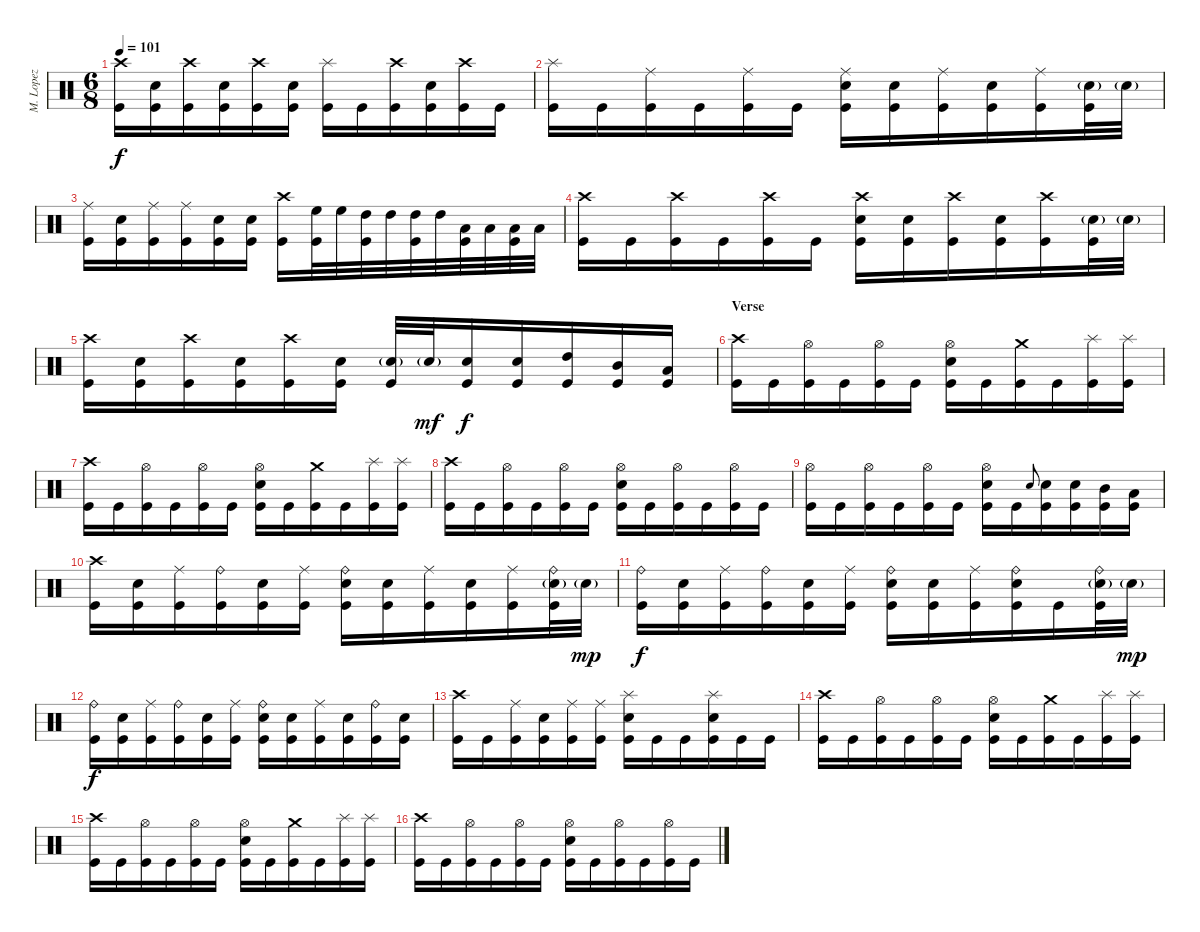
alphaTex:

\track ("M. Lopez" "M. Lopez") {instrument percussion}
\staff {score}
\articulation defaults
\ts (6 8)
\tempo 101
\clef neutral
\ks c
("Crash high (hit)" "Kick (hit)").16{dy f} ("Electric Snare (hit)" "Kick (hit)").16 ("Crash high (hit)" "Kick (hit)").16 ("Electric Snare (hit)" "Kick (hit)").16 ("Crash high (hit)" "Kick (hit)").16 ("Electric Snare (hit)" "Kick (hit)").16 ("Splash (hit)" "Kick (hit)").16 "Kick (hit)".16 ("Crash high (hit)" "Kick (hit)").16 ("Electric Snare (hit)" "Kick (hit)").16 ("Crash high (hit)" "Kick (hit)").16 "Kick (hit)".16 |
("Splash (hit)" "Kick (hit)").16 "Kick (hit)".16 ("Ride (middle)" "Kick (hit)").16 "Kick (hit)".16 ("Ride (middle)" "Kick (hit)").16 "Kick (hit)".16 ("Ride (middle)" "Electric Snare (hit)" "Kick (hit)").16 ("Electric Snare (hit)" "Kick (hit)").16 ("Ride (middle)" "Kick (hit)").16 ("Electric Snare (hit)" "Kick (hit)").16 ("Ride (middle)" "Kick (hit)").16 ("Electric Snare (hit)"{g} "Kick (hit)").32 "Electric Snare (hit)"{g}.32 |
("Ride (middle)" "Kick (hit)").16 ("Electric Snare (hit)" "Kick (hit)").16 ("Ride (middle)" "Kick (hit)").16 ("Ride (middle)" "Kick (hit)").16 ("Electric Snare (hit)" "Kick (hit)").16 ("Electric Snare (hit)" "Kick (hit)").16 ("Crash high (hit)" "Kick (hit)").16 ("High Floor Tom (hit)" "Kick (hit)").32 "High Floor Tom (hit)".32 ("High Tom (hit)" "Kick (hit)").32 "High Tom (hit)".32 ("High Tom (hit)" "Kick (hit)").32 "High Tom (hit)".32 ("Low Tom (hit)" "Kick (hit)").32 "Low Tom (hit)".32 ("Low Tom (hit)" "Kick (hit)").32 "Low Tom (hit)".32 |
("Crash high (hit)" "Kick (hit)").16 "Kick (hit)".16 ("Crash high (hit)" "Kick (hit)").16 "Kick (hit)".16 ("Crash high (hit)" "Kick (hit)").16 "Kick (hit)".16 ("Crash high (hit)" "Electric Snare (hit)" "Kick (hit)").16 ("Electric Snare (hit)" "Kick (hit)").16 ("Crash high (hit)" "Kick (hit)").16 ("Electric Snare (hit)" "Kick (hit)").16 ("Crash high (hit)" "Kick (hit)").16 ("Electric Snare (hit)"{g} "Kick (hit)").32 "Electric Snare (hit)"{g}.32 |
("Crash high (hit)" "Kick (hit)").16 ("Electric Snare (hit)" "Kick (hit)").16 ("Crash high (hit)" "Kick (hit)").16 ("Electric Snare (hit)" "Kick (hit)").16 ("Crash high (hit)" "Kick (hit)").16 ("Electric Snare (hit)" "Kick (hit)").16 ("Electric Snare (hit)"{g} "Kick (hit)").32 "Electric Snare (hit)"{g}.32{dy mf} ("Electric Snare (hit)" "Kick (hit)").16{dy f} ("Electric Snare (hit)" "Kick (hit)").16 ("High Tom (hit)" "Kick (hit)").16 ("Mid Tom (hit)" "Kick (hit)").16 ("Low Tom (hit)" "Kick (hit)").16 |
\section ("" "Verse")
("Crash high (hit)" "Kick (hit)").16 "Kick (hit)".16 ("Hi-Hat (open)" "Kick (hit)").16 "Kick (hit)".16 ("Hi-Hat (open)" "Kick (hit)").16 "Kick (hit)".16 ("Hi-Hat (open)" "Electric Snare (hit)" "Kick (hit)").16 "Kick (hit)".16 ("Crash medium (hit)" "Kick (hit)").16 "Kick (hit)".16 ("Splash (hit)" "Kick (hit)").16 ("Splash (hit)" "Kick (hit)").16 |
("Crash high (hit)" "Kick (hit)").16 "Kick (hit)".16 ("Hi-Hat (open)" "Kick (hit)").16 "Kick (hit)".16 ("Hi-Hat (open)" "Kick (hit)").16 "Kick (hit)".16 ("Hi-Hat (open)" "Electric Snare (hit)" "Kick (hit)").16 "Kick (hit)".16 ("Crash medium (hit)" "Kick (hit)").16 "Kick (hit)".16 ("Splash (hit)" "Kick (hit)").16 ("Splash (hit)" "Kick (hit)").16 |
("Crash high (hit)" "Kick (hit)").16 "Kick (hit)".16 ("Hi-Hat (open)" "Kick (hit)").16 "Kick (hit)".16 ("Hi-Hat (open)" "Kick (hit)").16 "Kick (hit)".16 ("Hi-Hat (open)" "Electric Snare (hit)" "Kick (hit)").16 "Kick (hit)".16 ("Hi-Hat (open)" "Kick (hit)").16 "Kick (hit)".16 ("Hi-Hat (open)" "Kick (hit)").16 "Kick (hit)".16 |
("Hi-Hat (open)" "Kick (hit)").16 "Kick (hit)".16 ("Hi-Hat (open)" "Kick (hit)").16 "Kick (hit)".16 ("Hi-Hat (open)" "Kick (hit)").16 "Kick (hit)".16 ("Hi-Hat (open)" "Electric Snare (hit)" "Kick (hit)").16 "Kick (hit)".16 "Electric Snare (hit)".8{gr onbeat} ("Electric Snare (hit)" "Kick (hit)").16 ("Electric Snare (hit)" "Kick (hit)").16 ("Mid Tom (hit)" "Kick (hit)").16 ("Low Tom (hit)" "Kick (hit)").16 |
("Crash high (hit)" "Kick (hit)").16 ("Electric Snare (hit)" "Kick (hit)").16 ("Ride (middle)" "Kick (hit)").16 ("Ride (bell)" "Kick (hit)").16 ("Electric Snare (hit)" "Kick (hit)").16 ("Ride (middle)" "Kick (hit)").16 ("Ride (bell)" "Electric Snare (hit)" "Kick (hit)").16 ("Electric Snare (hit)" "Kick (hit)").16 ("Ride (middle)" "Kick (hit)").16 ("Electric Snare (hit)" "Kick (hit)").16 ("Ride (middle)" "Kick (hit)").16 ("Ride (bell)" "Electric Snare (hit)"{g} "Kick (hit)").32 "Electric Snare (hit)"{g}.32{dy mp} |
("Ride (bell)" "Kick (hit)").16{dy f} ("Electric Snare (hit)" "Kick (hit)").16 ("Ride (middle)" "Kick (hit)").16 ("Ride (bell)" "Kick (hit)").16 ("Electric Snare (hit)" "Kick (hit)").16 ("Ride (middle)" "Kick (hit)").16 ("Ride (bell)" "Electric Snare (hit)" "Kick (hit)").16 ("Electric Snare (hit)" "Kick (hit)").16 ("Ride (middle)" "Kick (hit)").16 ("Ride (bell)" "Electric Snare (hit)" "Kick (hit)").16 "Kick (hit)".16 ("Ride (bell)" "Electric Snare (hit)"{g} "Kick (hit)").32 "Electric Snare (hit)"{g}.32{dy mp} |
("Ride (bell)" "Kick (hit)").16{dy f} ("Electric Snare (hit)" "Kick (hit)").16 ("Ride (middle)" "Kick (hit)").16 ("Ride (bell)" "Kick (hit)").16 ("Electric Snare (hit)" "Kick (hit)").16 ("Ride (middle)" "Kick (hit)").16 ("Ride (bell)" "Electric Snare (hit)" "Kick (hit)").16 ("Electric Snare (hit)" "Kick (hit)").16 ("Ride (middle)" "Kick (hit)").16 ("Electric Snare (hit)" "Kick (hit)").16 ("Ride (bell)" "Kick (hit)").16 ("Electric Snare (hit)" "Kick (hit)").16 |
("Crash high (hit)" "Kick (hit)").16 "Kick (hit)".16 ("Ride (middle)" "Kick (hit)").16 ("Electric Snare (hit)" "Kick (hit)").16 ("Ride (middle)" "Kick (hit)").16 ("Ride (middle)" "Kick (hit)").16 ("Splash (hit)" "Electric Snare (hit)" "Kick (hit)").16 "Kick (hit)".16 "Kick (hit)".16 ("Splash (hit)" "Electric Snare (hit)" "Kick (hit)").16 "Kick (hit)".16 "Kick (hit)".16 |
("Crash high (hit)" "Kick (hit)").16 "Kick (hit)".16 ("Hi-Hat (open)" "Kick (hit)").16 "Kick (hit)".16 ("Hi-Hat (open)" "Kick (hit)").16 "Kick (hit)".16 ("Hi-Hat (open)" "Electric Snare (hit)" "Kick (hit)").16 "Kick (hit)".16 ("Crash medium (hit)" "Kick (hit)").16 "Kick (hit)".16 ("Splash (hit)" "Kick (hit)").16 ("Splash (hit)" "Kick (hit)").16 |
("Crash high (hit)" "Kick (hit)").16 "Kick (hit)".16 ("Hi-Hat (open)" "Kick (hit)").16 "Kick (hit)".16 ("Hi-Hat (open)" "Kick (hit)").16 "Kick (hit)".16 ("Hi-Hat (open)" "Electric Snare (hit)" "Kick (hit)").16 "Kick (hit)".16 ("Crash medium (hit)" "Kick (hit)").16 "Kick (hit)".16 ("Splash (hit)" "Kick (hit)").16 ("Splash (hit)" "Kick (hit)").16 |
("Crash high (hit)" "Kick (hit)").16 "Kick (hit)".16 ("Hi-Hat (open)" "Kick (hit)").16 "Kick (hit)".16 ("Hi-Hat (open)" "Kick (hit)").16 "Kick (hit)".16 ("Hi-Hat (open)" "Electric Snare (hit)" "Kick (hit)").16 "Kick (hit)".16 ("Hi-Hat (open)" "Kick (hit)").16 "Kick (hit)".16 ("Hi-Hat (open)" "Kick (hit)").16 "Kick (hit)".16
